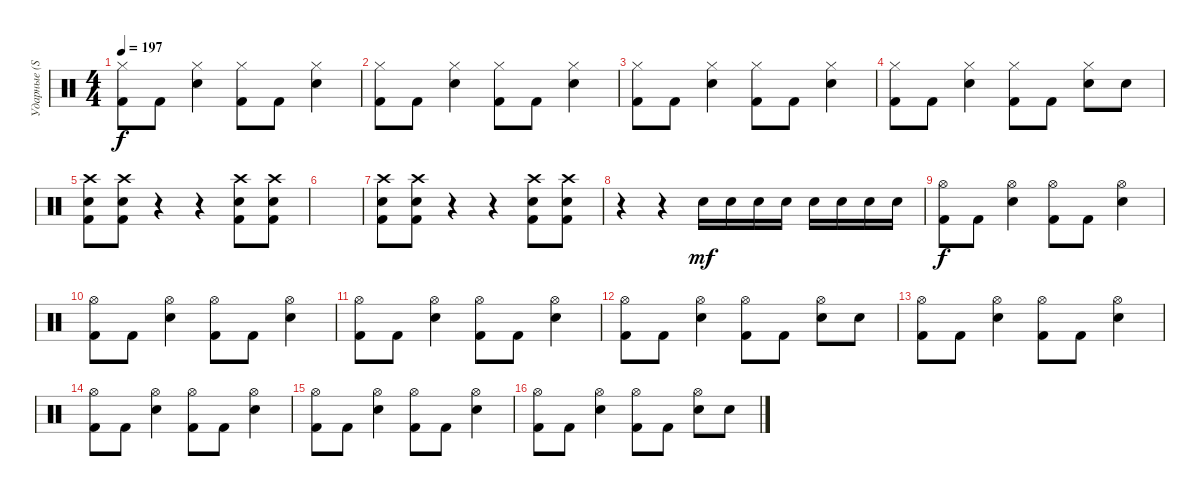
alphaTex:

\track ("Ударные (Stevo32)" "Ударные (S") {instrument percussion}
\staff {score}
\articulation defaults
\ts (4 4)
\tempo 197
\clef neutral
\ks c
("Hi-Hat (closed)" "Kick (hit) 2").8{dy f} "Kick (hit) 2".8 ("Hi-Hat (closed)" "Snare (hit) 2").4 ("Hi-Hat (closed)" "Kick (hit) 2").8 "Kick (hit) 2".8 ("Hi-Hat (closed)" "Snare (hit) 2").4 |
("Hi-Hat (closed)" "Kick (hit) 2").8 "Kick (hit) 2".8 ("Hi-Hat (closed)" "Snare (hit) 2").4 ("Hi-Hat (closed)" "Kick (hit) 2").8 "Kick (hit) 2".8 ("Hi-Hat (closed)" "Snare (hit) 2").4 |
("Hi-Hat (closed)" "Kick (hit) 2").8 "Kick (hit) 2".8 ("Hi-Hat (closed)" "Snare (hit) 2").4 ("Hi-Hat (closed)" "Kick (hit) 2").8 "Kick (hit) 2".8 ("Hi-Hat (closed)" "Snare (hit) 2").4 |
("Hi-Hat (closed)" "Kick (hit) 2").8 "Kick (hit) 2".8 ("Hi-Hat (closed)" "Snare (hit) 2").4 ("Hi-Hat (closed)" "Kick (hit) 2").8 "Kick (hit) 2".8 ("Hi-Hat (closed)" "Snare (hit) 2").8 "Snare (hit) 2".8 |
("Crash high (hit)" "Snare (hit) 2" "Kick (hit) 2").8 ("Crash high (hit)" "Snare (hit) 2" "Kick (hit) 2").8 r.4 r.4 ("Crash high (hit)" "Snare (hit) 2" "Kick (hit) 2").8 ("Crash high (hit)" "Snare (hit) 2" "Kick (hit) 2").8 |
|
("Crash high (hit)" "Snare (hit) 2" "Kick (hit) 2").8 ("Crash high (hit)" "Snare (hit) 2" "Kick (hit) 2").8 r.4 r.4 ("Crash high (hit)" "Snare (hit) 2" "Kick (hit) 2").8 ("Crash high (hit)" "Snare (hit) 2" "Kick (hit) 2").8 |
r.4 r.4 "Snare (hit) 2".16{dy mf} "Snare (hit) 2".16 "Snare (hit) 2".16 "Snare (hit) 2".16 "Snare (hit) 2".16 "Snare (hit) 2".16 "Snare (hit) 2".16 "Snare (hit) 2".16 |
("Hi-Hat (open)" "Kick (hit) 2").8{dy f} "Kick (hit) 2".8 ("Hi-Hat (open)" "Snare (hit) 2").4 ("Hi-Hat (open)" "Kick (hit) 2").8 "Kick (hit) 2".8 ("Hi-Hat (open)" "Snare (hit) 2").4 |
("Hi-Hat (open)" "Kick (hit) 2").8 "Kick (hit) 2".8 ("Hi-Hat (open)" "Snare (hit) 2").4 ("Hi-Hat (open)" "Kick (hit) 2").8 "Kick (hit) 2".8 ("Hi-Hat (open)" "Snare (hit) 2").4 |
("Hi-Hat (open)" "Kick (hit) 2").8 "Kick (hit) 2".8 ("Hi-Hat (open)" "Snare (hit) 2").4 ("Hi-Hat (open)" "Kick (hit) 2").8 "Kick (hit) 2".8 ("Hi-Hat (open)" "Snare (hit) 2").4 |
("Hi-Hat (open)" "Kick (hit) 2").8 "Kick (hit) 2".8 ("Hi-Hat (open)" "Snare (hit) 2").4 ("Hi-Hat (open)" "Kick (hit) 2").8 "Kick (hit) 2".8 ("Hi-Hat (open)" "Snare (hit) 2").8 "Snare (hit) 2".8 |
("Hi-Hat (open)" "Kick (hit) 2").8 "Kick (hit) 2".8 ("Hi-Hat (open)" "Snare (hit) 2").4 ("Hi-Hat (open)" "Kick (hit) 2").8 "Kick (hit) 2".8 ("Hi-Hat (open)" "Snare (hit) 2").4 |
("Hi-Hat (open)" "Kick (hit) 2").8 "Kick (hit) 2".8 ("Hi-Hat (open)" "Snare (hit) 2").4 ("Hi-Hat (open)" "Kick (hit) 2").8 "Kick (hit) 2".8 ("Hi-Hat (open)" "Snare (hit) 2").4 |
("Hi-Hat (open)" "Kick (hit) 2").8 "Kick (hit) 2".8 ("Hi-Hat (open)" "Snare (hit) 2").4 ("Hi-Hat (open)" "Kick (hit) 2").8 "Kick (hit) 2".8 ("Hi-Hat (open)" "Snare (hit) 2").4 |
("Hi-Hat (open)" "Kick (hit) 2").8 "Kick (hit) 2".8 ("Hi-Hat (open)" "Snare (hit) 2").4 ("Hi-Hat (open)" "Kick (hit) 2").8 "Kick (hit) 2".8 ("Hi-Hat (open)" "Snare (hit) 2").8 "Snare (hit) 2".8
